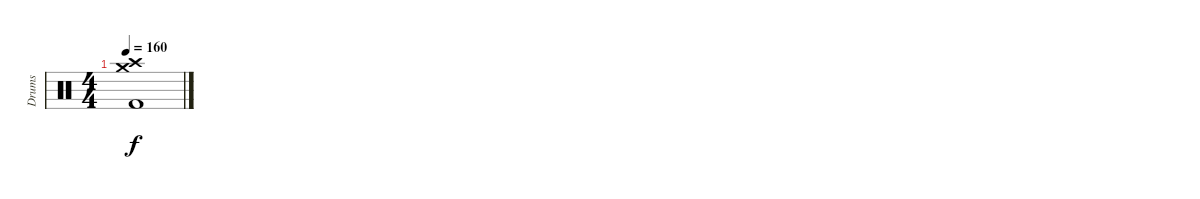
\track ("Drums" "Drums") {instrument percussion}
\staff {score}
\articulation defaults
\ts (4 4)
\tempo 160
\clef neutral
\ks c
("Crash medium (hit)" "Crash high (hit)" "Kick (hit) 2").1{dy f}
